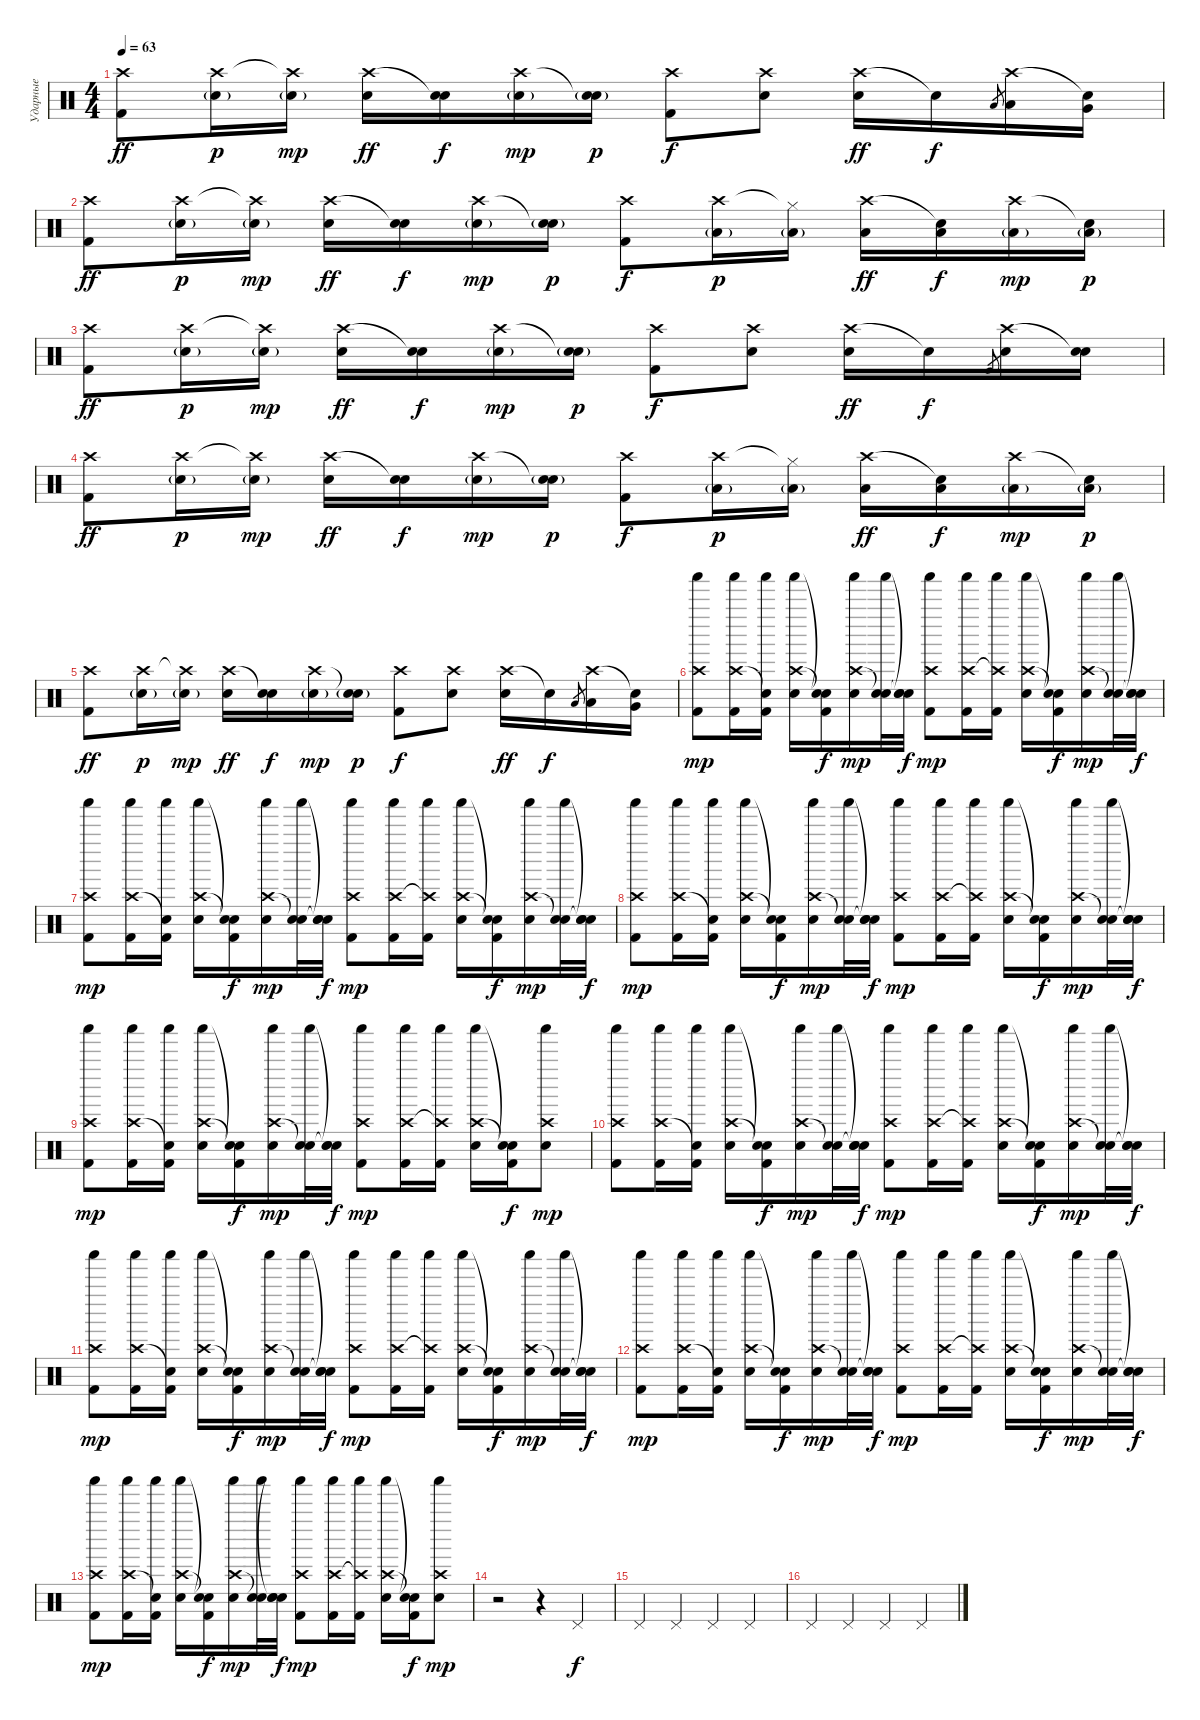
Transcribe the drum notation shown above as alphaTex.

\track ("Ударные" "Ударные") {instrument percussion}
\staff {score}
\articulation defaults
\ts (4 4)
\tempo 63
\clef neutral
\ks c
("Crash high (hit)" "Kick (hit) 2").8{dy ff} ("Crash high (hit)" "Snare (hit) 2"{g}).16{dy p} ("Crash high (hit)"{t} "Snare (hit) 2"{g}).16{dy mp} ("Crash high (hit)" "Snare (hit) 2").16{dy ff} ("Snare (hit)"{t} "Snare (hit) 2").16{dy f} ("Crash high (hit)" "Snare (hit) 2"{g}).16{dy mp} ("Snare (hit)"{t} "Snare (hit) 2"{g}).16{dy p} ("Crash high (hit)" "Kick (hit) 2").8{dy f} ("Crash high (hit)" "Snare (hit) 2").8 ("Crash high (hit)" "Snare (hit) 2").16{dy ff} "Snare (hit)"{t}.16{dy f} "Low Floor Tom (hit)".8{gr} ("Crash high (hit)" "Low Floor Tom (hit)").16 ("Snare (hit)"{t} "Very Low Tom (hit)").16 |
("Crash high (hit)" "Kick (hit) 2").8{dy ff} ("Crash high (hit)" "Snare (hit) 2"{g}).16{dy p} ("Crash high (hit)"{t} "Snare (hit) 2"{g}).16{dy mp} ("Crash high (hit)" "Snare (hit) 2").16{dy ff} ("Snare (hit)"{t} "Snare (hit) 2").16{dy f} ("Crash high (hit)" "Snare (hit) 2"{g}).16{dy mp} ("Snare (hit)"{t} "Snare (hit) 2"{g}).16{dy p} ("Crash high (hit)" "Kick (hit) 2").8{dy f} ("Crash high (hit)" "Low Floor Tom (hit)"{g}).16{dy p} ("Hi-Hat (closed)"{t} "Low Floor Tom (hit)"{g}).16 ("Crash high (hit)" "Low Floor Tom (hit)").16{dy ff} ("Snare (hit)"{t} "Low Floor Tom (hit)").16{dy f} ("Crash high (hit)" "Low Floor Tom (hit)"{g}).16{dy mp} ("Snare (hit)"{t} "Low Floor Tom (hit)"{g}).16{dy p} |
("Crash high (hit)" "Kick (hit) 2").8{dy ff} ("Crash high (hit)" "Snare (hit) 2"{g}).16{dy p} ("Crash high (hit)"{t} "Snare (hit) 2"{g}).16{dy mp} ("Crash high (hit)" "Snare (hit) 2").16{dy ff} ("Snare (hit)"{t} "Snare (hit) 2").16{dy f} ("Crash high (hit)" "Snare (hit) 2"{g}).16{dy mp} ("Snare (hit)"{t} "Snare (hit) 2"{g}).16{dy p} ("Crash high (hit)" "Kick (hit) 2").8{dy f} ("Crash high (hit)" "Snare (hit) 2").8 ("Crash high (hit)" "Snare (hit) 2").16{dy ff} "Snare (hit)"{t}.16{dy f} "Kick (hit) 2".8{gr} ("Crash high (hit)" "Snare (hit) 2").16 ("Snare (hit)"{t} "Snare (hit) 2").16 |
("Crash high (hit)" "Kick (hit) 2").8{dy ff} ("Crash high (hit)" "Snare (hit) 2"{g}).16{dy p} ("Crash high (hit)"{t} "Snare (hit) 2"{g}).16{dy mp} ("Crash high (hit)" "Snare (hit) 2").16{dy ff} ("Snare (hit)"{t} "Snare (hit) 2").16{dy f} ("Crash high (hit)" "Snare (hit) 2"{g}).16{dy mp} ("Snare (hit)"{t} "Snare (hit) 2"{g}).16{dy p} ("Crash high (hit)" "Kick (hit) 2").8{dy f} ("Crash high (hit)" "Low Floor Tom (hit)"{g}).16{dy p} ("Hi-Hat (closed)"{t} "Low Floor Tom (hit)"{g}).16 ("Crash high (hit)" "Low Floor Tom (hit)").16{dy ff} ("Snare (hit)"{t} "Low Floor Tom (hit)").16{dy f} ("Crash high (hit)" "Low Floor Tom (hit)"{g}).16{dy mp} ("Snare (hit)"{t} "Low Floor Tom (hit)"{g}).16{dy p} |
("Crash high (hit)" "Kick (hit) 2").8{dy ff} ("Crash high (hit)" "Snare (hit) 2"{g}).16{dy p} ("Crash high (hit)"{t} "Snare (hit) 2"{g}).16{dy mp} ("Crash high (hit)" "Snare (hit) 2").16{dy ff} ("Snare (hit)"{t} "Snare (hit) 2").16{dy f} ("Crash high (hit)" "Snare (hit) 2"{g}).16{dy mp} ("Snare (hit)"{t} "Snare (hit) 2"{g}).16{dy p} ("Crash high (hit)" "Kick (hit) 2").8{dy f} ("Crash high (hit)" "Snare (hit) 2").8 ("Crash high (hit)" "Snare (hit) 2").16{dy ff} "Snare (hit)"{t}.16{dy f} "Low Floor Tom (hit)".8{gr} ("Crash high (hit)" "Low Floor Tom (hit)").16 ("Snare (hit)"{t} "Very Low Tom (hit)").16 |
("Crash high (hit)" "Shaker (hit)" "Kick (hit) 2").8{dy mp} ("Crash high (hit)" "Shaker (hit)" "Kick (hit) 2").16 ("Snare (hit)"{t} "Shaker (hit)" "Kick (hit) 2").16 ("Crash high (hit)" "Shaker (hit)" "Snare (hit) 2").16 ("Snare (hit)"{t} "Snare (hit)"{t} "Kick (hit) 2").16{dy f} ("Crash high (hit)" "Shaker (hit)" "Snare (hit) 2").16{dy mp} ("Snare (hit)"{t} "Shaker (hit)" "Snare (hit) 2").32 ("Snare (hit)"{t} "Snare (hit)"{t} "Snare (hit) 2").32{dy f} ("Crash high (hit)" "Shaker (hit)" "Kick (hit) 2").8{dy mp} ("Crash high (hit)" "Shaker (hit)" "Kick (hit) 2").16 ("Crash high (hit)"{t} "Shaker (hit)" "Kick (hit) 2").16 ("Crash high (hit)" "Shaker (hit)" "Snare (hit) 2").16 ("Snare (hit)"{t} "Snare (hit)"{t} "Kick (hit) 2").16{dy f} ("Crash high (hit)" "Shaker (hit)" "Snare (hit) 2").16{dy mp} ("Snare (hit)"{t} "Shaker (hit)" "Snare (hit) 2").32 ("Snare (hit)"{t} "Snare (hit)"{t} "Snare (hit) 2").32{dy f} |
("Crash high (hit)" "Shaker (hit)" "Kick (hit) 2").8{dy mp} ("Crash high (hit)" "Shaker (hit)" "Kick (hit) 2").16 ("Snare (hit)"{t} "Shaker (hit)" "Kick (hit) 2").16 ("Crash high (hit)" "Shaker (hit)" "Snare (hit) 2").16 ("Snare (hit)"{t} "Snare (hit)"{t} "Kick (hit) 2").16{dy f} ("Crash high (hit)" "Shaker (hit)" "Snare (hit) 2").16{dy mp} ("Snare (hit)"{t} "Shaker (hit)" "Snare (hit) 2").32 ("Snare (hit)"{t} "Snare (hit)"{t} "Snare (hit) 2").32{dy f} ("Crash high (hit)" "Shaker (hit)" "Kick (hit) 2").8{dy mp} ("Crash high (hit)" "Shaker (hit)" "Kick (hit) 2").16 ("Crash high (hit)"{t} "Shaker (hit)" "Kick (hit) 2").16 ("Crash high (hit)" "Shaker (hit)" "Snare (hit) 2").16 ("Snare (hit)"{t} "Snare (hit)"{t} "Kick (hit) 2").16{dy f} ("Crash high (hit)" "Shaker (hit)" "Snare (hit) 2").16{dy mp} ("Snare (hit)"{t} "Shaker (hit)" "Snare (hit) 2").32 ("Snare (hit)"{t} "Snare (hit)"{t} "Snare (hit) 2").32{dy f} |
("Crash high (hit)" "Shaker (hit)" "Kick (hit) 2").8{dy mp} ("Crash high (hit)" "Shaker (hit)" "Kick (hit) 2").16 ("Snare (hit)"{t} "Shaker (hit)" "Kick (hit) 2").16 ("Crash high (hit)" "Shaker (hit)" "Snare (hit) 2").16 ("Snare (hit)"{t} "Snare (hit)"{t} "Kick (hit) 2").16{dy f} ("Crash high (hit)" "Shaker (hit)" "Snare (hit) 2").16{dy mp} ("Snare (hit)"{t} "Shaker (hit)" "Snare (hit) 2").32 ("Snare (hit)"{t} "Snare (hit)"{t} "Snare (hit) 2").32{dy f} ("Crash high (hit)" "Shaker (hit)" "Kick (hit) 2").8{dy mp} ("Crash high (hit)" "Shaker (hit)" "Kick (hit) 2").16 ("Crash high (hit)"{t} "Shaker (hit)" "Kick (hit) 2").16 ("Crash high (hit)" "Shaker (hit)" "Snare (hit) 2").16 ("Snare (hit)"{t} "Snare (hit)"{t} "Kick (hit) 2").16{dy f} ("Crash high (hit)" "Shaker (hit)" "Snare (hit) 2").16{dy mp} ("Snare (hit)"{t} "Shaker (hit)" "Snare (hit) 2").32 ("Snare (hit)"{t} "Snare (hit)"{t} "Snare (hit) 2").32{dy f} |
("Crash high (hit)" "Shaker (hit)" "Kick (hit) 2").8{dy mp} ("Crash high (hit)" "Shaker (hit)" "Kick (hit) 2").16 ("Snare (hit)"{t} "Shaker (hit)" "Kick (hit) 2").16 ("Crash high (hit)" "Shaker (hit)" "Snare (hit) 2").16 ("Snare (hit)"{t} "Snare (hit)"{t} "Kick (hit) 2").16{dy f} ("Crash high (hit)" "Shaker (hit)" "Snare (hit) 2").16{dy mp} ("Snare (hit)"{t} "Shaker (hit)" "Snare (hit) 2").32 ("Snare (hit)"{t} "Snare (hit)"{t} "Snare (hit) 2").32{dy f} ("Crash high (hit)" "Shaker (hit)" "Kick (hit) 2").8{dy mp} ("Crash high (hit)" "Shaker (hit)" "Kick (hit) 2").16 ("Crash high (hit)"{t} "Shaker (hit)" "Kick (hit) 2").16 ("Crash high (hit)" "Shaker (hit)" "Snare (hit) 2").16 ("Snare (hit)"{t} "Snare (hit)"{t} "Kick (hit) 2").16{dy f} ("Crash high (hit)" "Shaker (hit)" "Snare (hit) 2").8{dy mp} |
("Crash high (hit)" "Shaker (hit)" "Kick (hit) 2").8 ("Crash high (hit)" "Shaker (hit)" "Kick (hit) 2").16 ("Snare (hit)"{t} "Shaker (hit)" "Kick (hit) 2").16 ("Crash high (hit)" "Shaker (hit)" "Snare (hit) 2").16 ("Snare (hit)"{t} "Snare (hit)"{t} "Kick (hit) 2").16{dy f} ("Crash high (hit)" "Shaker (hit)" "Snare (hit) 2").16{dy mp} ("Snare (hit)"{t} "Shaker (hit)" "Snare (hit) 2").32 ("Snare (hit)"{t} "Snare (hit)"{t} "Snare (hit) 2").32{dy f} ("Crash high (hit)" "Shaker (hit)" "Kick (hit) 2").8{dy mp} ("Crash high (hit)" "Shaker (hit)" "Kick (hit) 2").16 ("Crash high (hit)"{t} "Shaker (hit)" "Kick (hit) 2").16 ("Crash high (hit)" "Shaker (hit)" "Snare (hit) 2").16 ("Snare (hit)"{t} "Snare (hit)"{t} "Kick (hit) 2").16{dy f} ("Crash high (hit)" "Shaker (hit)" "Snare (hit) 2").16{dy mp} ("Snare (hit)"{t} "Shaker (hit)" "Snare (hit) 2").32 ("Snare (hit)"{t} "Snare (hit)"{t} "Snare (hit) 2").32{dy f} |
("Crash high (hit)" "Shaker (hit)" "Kick (hit) 2").8{dy mp} ("Crash high (hit)" "Shaker (hit)" "Kick (hit) 2").16 ("Snare (hit)"{t} "Shaker (hit)" "Kick (hit) 2").16 ("Crash high (hit)" "Shaker (hit)" "Snare (hit) 2").16 ("Snare (hit)"{t} "Snare (hit)"{t} "Kick (hit) 2").16{dy f} ("Crash high (hit)" "Shaker (hit)" "Snare (hit) 2").16{dy mp} ("Snare (hit)"{t} "Shaker (hit)" "Snare (hit) 2").32 ("Snare (hit)"{t} "Snare (hit)"{t} "Snare (hit) 2").32{dy f} ("Crash high (hit)" "Shaker (hit)" "Kick (hit) 2").8{dy mp} ("Crash high (hit)" "Shaker (hit)" "Kick (hit) 2").16 ("Crash high (hit)"{t} "Shaker (hit)" "Kick (hit) 2").16 ("Crash high (hit)" "Shaker (hit)" "Snare (hit) 2").16 ("Snare (hit)"{t} "Snare (hit)"{t} "Kick (hit) 2").16{dy f} ("Crash high (hit)" "Shaker (hit)" "Snare (hit) 2").16{dy mp} ("Snare (hit)"{t} "Shaker (hit)" "Snare (hit) 2").32 ("Snare (hit)"{t} "Snare (hit)"{t} "Snare (hit) 2").32{dy f} |
("Crash high (hit)" "Shaker (hit)" "Kick (hit) 2").8{dy mp} ("Crash high (hit)" "Shaker (hit)" "Kick (hit) 2").16 ("Snare (hit)"{t} "Shaker (hit)" "Kick (hit) 2").16 ("Crash high (hit)" "Shaker (hit)" "Snare (hit) 2").16 ("Snare (hit)"{t} "Snare (hit)"{t} "Kick (hit) 2").16{dy f} ("Crash high (hit)" "Shaker (hit)" "Snare (hit) 2").16{dy mp} ("Snare (hit)"{t} "Shaker (hit)" "Snare (hit) 2").32 ("Snare (hit)"{t} "Snare (hit)"{t} "Snare (hit) 2").32{dy f} ("Crash high (hit)" "Shaker (hit)" "Kick (hit) 2").8{dy mp} ("Crash high (hit)" "Shaker (hit)" "Kick (hit) 2").16 ("Crash high (hit)"{t} "Shaker (hit)" "Kick (hit) 2").16 ("Crash high (hit)" "Shaker (hit)" "Snare (hit) 2").16 ("Snare (hit)"{t} "Snare (hit)"{t} "Kick (hit) 2").16{dy f} ("Crash high (hit)" "Shaker (hit)" "Snare (hit) 2").16{dy mp} ("Snare (hit)"{t} "Shaker (hit)" "Snare (hit) 2").32 ("Snare (hit)"{t} "Snare (hit)"{t} "Snare (hit) 2").32{dy f} |
("Crash high (hit)" "Shaker (hit)" "Kick (hit) 2").8{dy mp} ("Crash high (hit)" "Shaker (hit)" "Kick (hit) 2").16 ("Snare (hit)"{t} "Shaker (hit)" "Kick (hit) 2").16 ("Crash high (hit)" "Shaker (hit)" "Snare (hit) 2").16 ("Snare (hit)"{t} "Snare (hit)"{t} "Kick (hit) 2").16{dy f} ("Crash high (hit)" "Shaker (hit)" "Snare (hit) 2").16{dy mp} ("Snare (hit)"{t} "Shaker (hit)" "Snare (hit) 2").32 ("Snare (hit)"{t} "Snare (hit)"{t} "Snare (hit) 2").32{dy f} ("Crash high (hit)" "Shaker (hit)" "Kick (hit) 2").8{dy mp} ("Crash high (hit)" "Shaker (hit)" "Kick (hit) 2").16 ("Crash high (hit)"{t} "Shaker (hit)" "Kick (hit) 2").16 ("Crash high (hit)" "Shaker (hit)" "Snare (hit) 2").16 ("Snare (hit)"{t} "Snare (hit)"{t} "Kick (hit) 2").16{dy f} ("Crash high (hit)" "Shaker (hit)" "Snare (hit) 2").8{dy mp} |
r.2 r.4 "Pedal Hi-Hat (hit)".4{dy f} |
"Pedal Hi-Hat (hit)".4 "Pedal Hi-Hat (hit)".4 "Pedal Hi-Hat (hit)".4 "Pedal Hi-Hat (hit)".4 |
"Pedal Hi-Hat (hit)".4 "Pedal Hi-Hat (hit)".4 "Pedal Hi-Hat (hit)".4 "Pedal Hi-Hat (hit)".4
